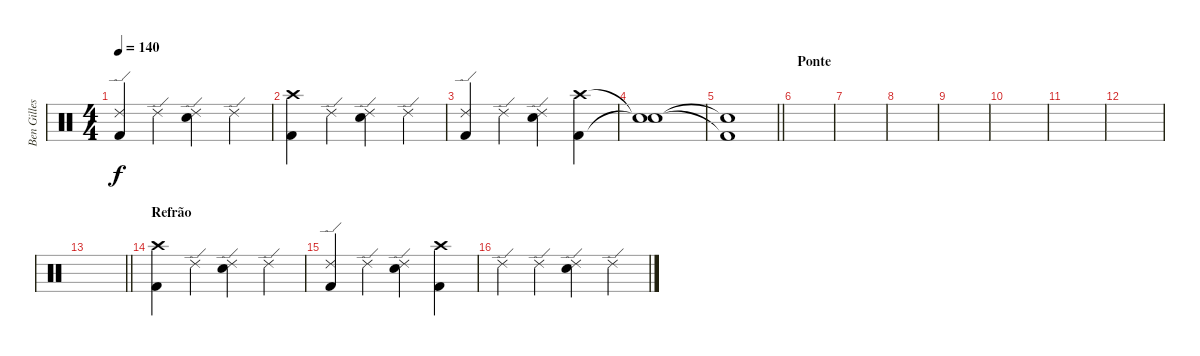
\track ("Ben Gilles" "Ben Gilles") {instrument percussion}
\staff {score}
\articulation defaults
\ts (4 4)
\tempo 140
\clef neutral
\ks c
("Ride (edge) 2" "Kick (hit) 2").4{dy f} "Ride (edge) 2".4 ("Ride (edge) 2" "Electric Snare (hit)").4 "Ride (edge) 2".4 |
("Crash high (hit)" "Kick (hit) 2").4 "Ride (edge) 2".4 ("Ride (edge) 2" "Electric Snare (hit)").4 "Ride (edge) 2".4 |
("Ride (edge) 2" "Kick (hit) 2").4 "Ride (edge) 2".4 ("Ride (edge) 2" "Electric Snare (hit)").4 ("Crash high (hit)" "Kick (hit) 2").4 |
("Snare (hit)"{t} "Snare (hit)"{t}).1 |
\barLineRight lightlight
("Snare (hit)"{t} "Kick (hit) 2"{t}).1 |
\section ("" "Ponte")
|
|
|
|
|
|
|
\barLineRight lightlight
|
\section ("" "Refrão ")
("Crash high (hit)" "Kick (hit) 2").4 "Ride (edge) 2".4 ("Ride (edge) 2" "Electric Snare (hit)").4 "Ride (edge) 2".4 |
("Ride (edge) 2" "Kick (hit) 2").4 "Ride (edge) 2".4 ("Ride (edge) 2" "Electric Snare (hit)").4 ("Crash high (hit)" "Kick (hit) 2").4 |
"Ride (edge) 2".4 "Ride (edge) 2".4 ("Ride (edge) 2" "Electric Snare (hit)").4 "Ride (edge) 2".4
